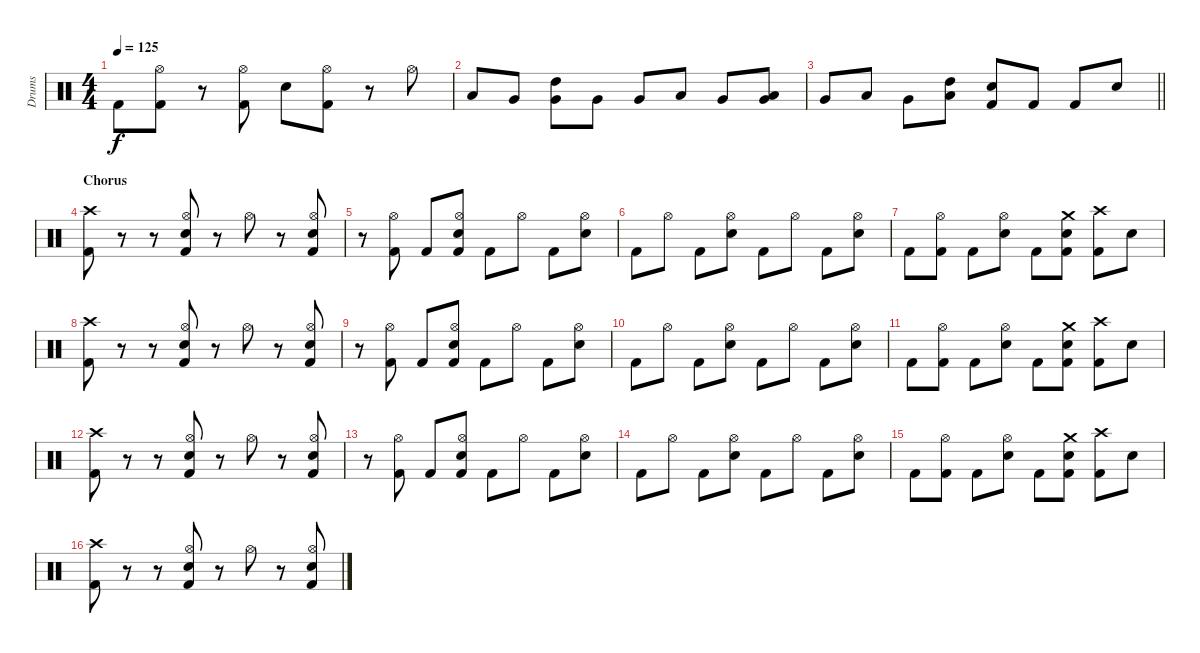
\track ("Drums" "Drums") {instrument percussion}
\staff {score}
\articulation defaults
\ts (4 4)
\tempo 125
\clef neutral
\ks c "Kick (hit) 2".8{dy f}
("Hi-Hat (open)" "Kick (hit) 2").8 r.8 ("Hi-Hat (open)" "Kick (hit) 2").8 "Snare (hit) 2".8 ("Hi-Hat (open)" "Kick (hit) 2").8 r.8 "Hi-Hat (open)".8 |
"Low Tom (hit)".8 "Very Low Tom (hit)".8 ("High Tom (hit)" "Very Low Tom (hit)").8 "Very Low Tom (hit)".8 "Very Low Tom (hit)".8 "Low Floor Tom (hit)".8 "Very Low Tom (hit)".8 ("Low Tom (hit)" "Very Low Tom (hit)").8 |
\barLineRight lightlight "Very Low Tom (hit)".8 "Low Tom (hit)".8 "Very Low Tom (hit)".8
("High Tom (hit)" "Low Tom (hit)").8 ("Snare (hit) 2" "Kick (hit) 2").8 "Kick (hit) 2".8 "Kick (hit) 2".8 "Snare (hit) 2".8 |
\section ("" "Chorus")
("Crash high (hit)" "Kick (hit) 2").8 r.8 r.8 ("Hi-Hat (open)" "Snare (hit) 2" "Kick (hit) 2").8 r.8 "Hi-Hat (open)".8 r.8 ("Hi-Hat (open)" "Snare (hit) 2" "Kick (hit) 2").8 |
r.8 ("Hi-Hat (open)" "Kick (hit) 2").8 "Kick (hit) 2".8 ("Hi-Hat (open)" "Snare (hit) 2" "Kick (hit) 2").8 "Kick (hit) 2".8 "Hi-Hat (open)".8 "Kick (hit) 2".8 ("Hi-Hat (open)" "Snare (hit) 2").8 |
"Kick (hit) 2".8 "Hi-Hat (open)".8 "Kick (hit) 2".8 ("Hi-Hat (open)" "Snare (hit) 2").8 "Kick (hit) 2".8 "Hi-Hat (open)".8 "Kick (hit) 2".8 ("Hi-Hat (open)" "Snare (hit) 2").8 |
"Kick (hit) 2".8 ("Hi-Hat (open)" "Kick (hit) 2").8 "Kick (hit) 2".8 ("Hi-Hat (open)" "Snare (hit) 2").8 "Kick (hit) 2".8 ("Crash medium (hit)" "Snare (hit) 2" "Kick (hit) 2").8 ("Crash high (hit)" "Kick (hit) 2").8 "Snare (hit) 2".8 |
("Crash high (hit)" "Kick (hit) 2").8 r.8 r.8 ("Hi-Hat (open)" "Snare (hit) 2" "Kick (hit) 2").8 r.8 "Hi-Hat (open)".8 r.8 ("Hi-Hat (open)" "Snare (hit) 2" "Kick (hit) 2").8 |
r.8 ("Hi-Hat (open)" "Kick (hit) 2").8 "Kick (hit) 2".8 ("Hi-Hat (open)" "Snare (hit) 2" "Kick (hit) 2").8 "Kick (hit) 2".8 "Hi-Hat (open)".8 "Kick (hit) 2".8 ("Hi-Hat (open)" "Snare (hit) 2").8 |
"Kick (hit) 2".8 "Hi-Hat (open)".8 "Kick (hit) 2".8 ("Hi-Hat (open)" "Snare (hit) 2").8 "Kick (hit) 2".8 "Hi-Hat (open)".8 "Kick (hit) 2".8 ("Hi-Hat (open)" "Snare (hit) 2").8 |
"Kick (hit) 2".8 ("Hi-Hat (open)" "Kick (hit) 2").8 "Kick (hit) 2".8 ("Hi-Hat (open)" "Snare (hit) 2").8 "Kick (hit) 2".8 ("Crash medium (hit)" "Snare (hit) 2" "Kick (hit) 2").8 ("Crash high (hit)" "Kick (hit) 2").8 "Snare (hit) 2".8 |
("Crash high (hit)" "Kick (hit) 2").8 r.8 r.8 ("Hi-Hat (open)" "Snare (hit) 2" "Kick (hit) 2").8 r.8 "Hi-Hat (open)".8 r.8 ("Hi-Hat (open)" "Snare (hit) 2" "Kick (hit) 2").8 |
r.8 ("Hi-Hat (open)" "Kick (hit) 2").8 "Kick (hit) 2".8 ("Hi-Hat (open)" "Snare (hit) 2" "Kick (hit) 2").8 "Kick (hit) 2".8 "Hi-Hat (open)".8 "Kick (hit) 2".8 ("Hi-Hat (open)" "Snare (hit) 2").8 |
"Kick (hit) 2".8 "Hi-Hat (open)".8 "Kick (hit) 2".8 ("Hi-Hat (open)" "Snare (hit) 2").8 "Kick (hit) 2".8 "Hi-Hat (open)".8 "Kick (hit) 2".8 ("Hi-Hat (open)" "Snare (hit) 2").8 |
"Kick (hit) 2".8 ("Hi-Hat (open)" "Kick (hit) 2").8 "Kick (hit) 2".8 ("Hi-Hat (open)" "Snare (hit) 2").8 "Kick (hit) 2".8 ("Crash medium (hit)" "Snare (hit) 2" "Kick (hit) 2").8 ("Crash high (hit)" "Kick (hit) 2").8 "Snare (hit) 2".8 |
("Crash high (hit)" "Kick (hit) 2").8 r.8 r.8 ("Hi-Hat (open)" "Snare (hit) 2" "Kick (hit) 2").8 r.8 "Hi-Hat (open)".8 r.8 ("Hi-Hat (open)" "Snare (hit) 2" "Kick (hit) 2").8
